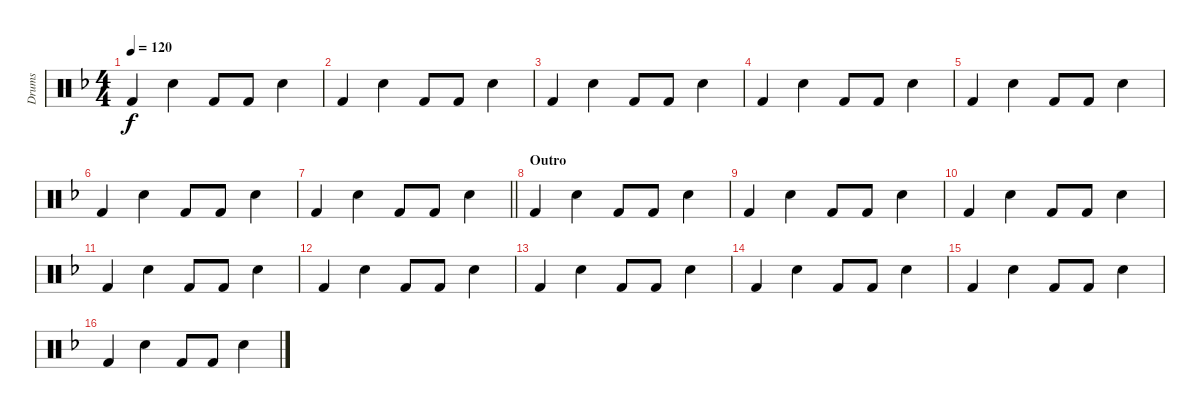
\track ("Drums" "Drums") {instrument percussion}
\staff {score}
\articulation defaults
\ts (4 4)
\tempo 120
\clef neutral
\ks f "Kick (hit) 2".4{dy f} "Snare (hit) 2".4 "Kick (hit) 2".8 "Kick (hit) 2".8 "Snare (hit) 2".4
|
"Kick (hit) 2".4 "Snare (hit) 2".4 "Kick (hit) 2".8 "Kick (hit) 2".8 "Snare (hit) 2".4 |
"Kick (hit) 2".4 "Snare (hit) 2".4 "Kick (hit) 2".8 "Kick (hit) 2".8 "Snare (hit) 2".4 |
"Kick (hit) 2".4 "Snare (hit) 2".4 "Kick (hit) 2".8 "Kick (hit) 2".8 "Snare (hit) 2".4 |
"Kick (hit) 2".4 "Snare (hit) 2".4 "Kick (hit) 2".8 "Kick (hit) 2".8 "Snare (hit) 2".4 |
"Kick (hit) 2".4 "Snare (hit) 2".4 "Kick (hit) 2".8 "Kick (hit) 2".8 "Snare (hit) 2".4 |
\barLineRight lightlight "Kick (hit) 2".4 "Snare (hit) 2".4 "Kick (hit) 2".8 "Kick (hit) 2".8 "Snare (hit) 2".4
|
\section ("" "Outro")
"Kick (hit) 2".4 "Snare (hit) 2".4 "Kick (hit) 2".8 "Kick (hit) 2".8 "Snare (hit) 2".4 |
"Kick (hit) 2".4 "Snare (hit) 2".4 "Kick (hit) 2".8 "Kick (hit) 2".8 "Snare (hit) 2".4 |
"Kick (hit) 2".4 "Snare (hit) 2".4 "Kick (hit) 2".8 "Kick (hit) 2".8 "Snare (hit) 2".4 |
"Kick (hit) 2".4 "Snare (hit) 2".4 "Kick (hit) 2".8 "Kick (hit) 2".8 "Snare (hit) 2".4 |
"Kick (hit) 2".4 "Snare (hit) 2".4 "Kick (hit) 2".8 "Kick (hit) 2".8 "Snare (hit) 2".4 |
"Kick (hit) 2".4 "Snare (hit) 2".4 "Kick (hit) 2".8 "Kick (hit) 2".8 "Snare (hit) 2".4 |
"Kick (hit) 2".4 "Snare (hit) 2".4 "Kick (hit) 2".8 "Kick (hit) 2".8 "Snare (hit) 2".4 |
"Kick (hit) 2".4 "Snare (hit) 2".4 "Kick (hit) 2".8 "Kick (hit) 2".8 "Snare (hit) 2".4 |
"Kick (hit) 2".4 "Snare (hit) 2".4 "Kick (hit) 2".8 "Kick (hit) 2".8 "Snare (hit) 2".4
